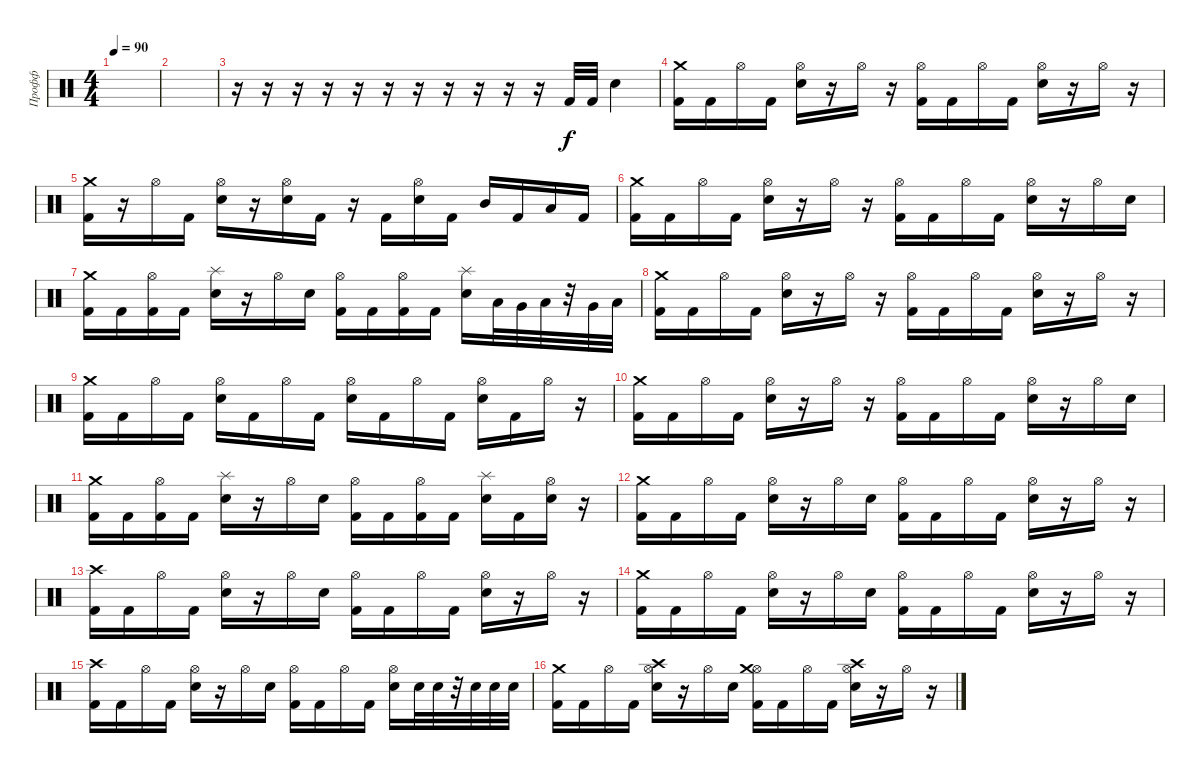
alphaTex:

\track ("Профф" "Профф") {instrument percussion}
\staff {score}
\articulation defaults
\ts (4 4)
\tempo 90
\clef neutral
\ks c
|
|
r.16 r.16 r.16 r.16 r.16 r.16 r.16 r.16 r.16 r.16 r.16 "Kick (hit) 2".32 "Kick (hit) 2".32 "Electric Snare (hit)".4 |
("Kick (hit) 2" "Crash medium (hit)").16 "Kick (hit) 2".16 "Hi-Hat (open)".16 "Kick (hit) 2".16 ("Electric Snare (hit)" "Hi-Hat (open)").16 r.16 "Hi-Hat (open)".16 r.16 ("Kick (hit) 2" "Hi-Hat (open)").16 "Kick (hit) 2".16 "Hi-Hat (open)".16 "Kick (hit) 2".16 ("Electric Snare (hit)" "Hi-Hat (open)").16 r.16 "Hi-Hat (open)".16 r.16 |
("Kick (hit) 2" "Crash medium (hit)").16 r.16 "Hi-Hat (open)".16 "Kick (hit) 2".16 ("Electric Snare (hit)" "Hi-Hat (open)").16 r.16 ("Electric Snare (hit)" "Hi-Hat (open)").16 "Kick (hit) 2".16 r.16 "Kick (hit) 2".16 ("Electric Snare (hit)" "Hi-Hat (open)").16 "Kick (hit) 2".16 "Mid Tom (hit)".16 "Kick (hit) 2".16 "Low Tom (hit)".16 "Kick (hit) 2".16 |
("Kick (hit) 2" "Crash medium (hit)").16 "Kick (hit) 2".16 "Hi-Hat (open)".16 "Kick (hit) 2".16 ("Electric Snare (hit)" "Hi-Hat (open)").16 r.16 "Hi-Hat (open)".16 r.16 ("Kick (hit) 2" "Hi-Hat (open)").16 "Kick (hit) 2".16 "Hi-Hat (open)".16 "Kick (hit) 2".16 ("Electric Snare (hit)" "Hi-Hat (open)").16 r.16 "Hi-Hat (open)".16 "Electric Snare (hit)".16 |
("Kick (hit) 2" "Crash medium (hit)").16 "Kick (hit) 2".16 ("Kick (hit) 2" "Hi-Hat (open)").16 "Kick (hit) 2".16 ("Electric Snare (hit)" "Splash (hit)").16 r.16 "Hi-Hat (open)".16 "Electric Snare (hit)".16 ("Kick (hit) 2" "Hi-Hat (open)").16 "Kick (hit) 2".16 ("Kick (hit) 2" "Hi-Hat (open)").16 "Kick (hit) 2".16 ("Electric Snare (hit)" "Splash (hit)").16 "Low Tom (hit)".32 "Very Low Tom (hit)".32 "Low Tom (hit)".32 r.32 "Very Low Tom (hit)".32 "Low Floor Tom (hit)".32 |
("Kick (hit) 2" "Crash medium (hit)").16 "Kick (hit) 2".16 "Hi-Hat (open)".16 "Kick (hit) 2".16 ("Electric Snare (hit)" "Hi-Hat (open)").16 r.16 "Hi-Hat (open)".16 r.16 ("Kick (hit) 2" "Hi-Hat (open)").16 "Kick (hit) 2".16 "Hi-Hat (open)".16 "Kick (hit) 2".16 ("Electric Snare (hit)" "Hi-Hat (open)").16 r.16 "Hi-Hat (open)".16 r.16 |
("Kick (hit) 2" "Crash medium (hit)").16 "Kick (hit) 2".16 "Hi-Hat (open)".16 "Kick (hit) 2".16 ("Electric Snare (hit)" "Hi-Hat (open)").16 "Kick (hit) 2".16 "Hi-Hat (open)".16 "Kick (hit) 2".16 ("Electric Snare (hit)" "Hi-Hat (open)").16 "Kick (hit) 2".16 "Hi-Hat (open)".16 "Kick (hit) 2".16 ("Electric Snare (hit)" "Hi-Hat (open)").16 "Kick (hit) 2".16 "Hi-Hat (open)".16 r.16 |
("Kick (hit) 2" "Crash medium (hit)").16 "Kick (hit) 2".16 "Hi-Hat (open)".16 "Kick (hit) 2".16 ("Electric Snare (hit)" "Hi-Hat (open)").16 r.16 "Hi-Hat (open)".16 r.16 ("Kick (hit) 2" "Hi-Hat (open)").16 "Kick (hit) 2".16 "Hi-Hat (open)".16 "Kick (hit) 2".16 ("Electric Snare (hit)" "Hi-Hat (open)").16 r.16 "Hi-Hat (open)".16 "Electric Snare (hit)".16 |
("Kick (hit) 2" "Crash medium (hit)").16 "Kick (hit) 2".16 ("Kick (hit) 2" "Hi-Hat (open)").16 "Kick (hit) 2".16 ("Electric Snare (hit)" "Splash (hit)").16 r.16 "Hi-Hat (open)".16 "Electric Snare (hit)".16 ("Kick (hit) 2" "Hi-Hat (open)").16 "Kick (hit) 2".16 ("Kick (hit) 2" "Hi-Hat (open)").16 "Kick (hit) 2".16 ("Electric Snare (hit)" "Splash (hit)").16 "Kick (hit) 2".16 ("Electric Snare (hit)" "Hi-Hat (open)").16 r.16 |
("Kick (hit) 2" "Crash medium (hit)").16 "Kick (hit) 2".16 "Hi-Hat (open)".16 "Kick (hit) 2".16 ("Electric Snare (hit)" "Hi-Hat (open)").16 r.16 "Hi-Hat (open)".16 "Electric Snare (hit)".16 ("Kick (hit) 2" "Hi-Hat (open)").16 "Kick (hit) 2".16 "Hi-Hat (open)".16 "Kick (hit) 2".16 ("Electric Snare (hit)" "Hi-Hat (open)").16 r.16 "Hi-Hat (open)".16 r.16 |
("Kick (hit) 2" "Crash high (hit)").16 "Kick (hit) 2".16 "Hi-Hat (open)".16 "Kick (hit) 2".16 ("Electric Snare (hit)" "Hi-Hat (open)").16 r.16 "Hi-Hat (open)".16 "Electric Snare (hit)".16 ("Kick (hit) 2" "Hi-Hat (open)").16 "Kick (hit) 2".16 "Hi-Hat (open)".16 "Kick (hit) 2".16 ("Electric Snare (hit)" "Hi-Hat (open)").16 r.16 "Hi-Hat (open)".16 r.16 |
("Kick (hit) 2" "Crash medium (hit)").16 "Kick (hit) 2".16 "Hi-Hat (open)".16 "Kick (hit) 2".16 ("Electric Snare (hit)" "Hi-Hat (open)").16 r.16 "Hi-Hat (open)".16 "Electric Snare (hit)".16 ("Kick (hit) 2" "Hi-Hat (open)").16 "Kick (hit) 2".16 "Hi-Hat (open)".16 "Kick (hit) 2".16 ("Electric Snare (hit)" "Hi-Hat (open)").16 r.16 "Hi-Hat (open)".16 r.16 |
("Kick (hit) 2" "Crash high (hit)").16 "Kick (hit) 2".16 "Hi-Hat (open)".16 "Kick (hit) 2".16 ("Electric Snare (hit)" "Hi-Hat (open)").16 r.16 "Hi-Hat (open)".16 "Electric Snare (hit)".16 ("Kick (hit) 2" "Hi-Hat (open)").16 "Kick (hit) 2".16 "Hi-Hat (open)".16 "Kick (hit) 2".16 ("Electric Snare (hit)" "Hi-Hat (open)").16 "Electric Snare (hit)".32 "Electric Snare (hit)".32 r.32 "Electric Snare (hit)".32 "Electric Snare (hit)".32 "Electric Snare (hit)".32 |
("Kick (hit) 2" "Crash medium (hit)").16 "Kick (hit) 2".16 "Hi-Hat (open)".16 "Kick (hit) 2".16 ("Electric Snare (hit)" "Hi-Hat (open)" "Crash high (hit)").16 r.16 "Hi-Hat (open)".16 "Electric Snare (hit)".16 ("Kick (hit) 2" "Hi-Hat (open)" "Crash medium (hit)").16 "Kick (hit) 2".16 "Hi-Hat (open)".16 "Kick (hit) 2".16 ("Electric Snare (hit)" "Hi-Hat (open)" "Crash high (hit)").16 r.16 "Hi-Hat (open)".16 r.16
